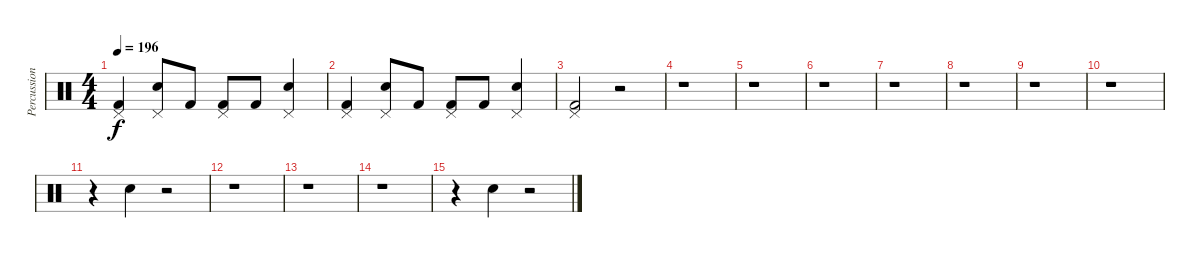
\track ("Percussion" "Percussion") {instrument percussion}
\staff {score}
\articulation defaults
\ts (4 4)
\tempo 196
\clef neutral
\ks c
("Pedal Hi-Hat (hit)" "Kick (hit) 2").4{dy f} ("Electric Snare (hit)" "Pedal Hi-Hat (hit)").8 "Kick (hit) 2".8 ("Pedal Hi-Hat (hit)" "Kick (hit) 2").8 "Kick (hit) 2".8 ("Electric Snare (hit)" "Pedal Hi-Hat (hit)").4 |
("Pedal Hi-Hat (hit)" "Kick (hit) 2").4 ("Electric Snare (hit)" "Pedal Hi-Hat (hit)").8 "Kick (hit) 2".8 ("Pedal Hi-Hat (hit)" "Kick (hit) 2").8 "Kick (hit) 2".8 ("Electric Snare (hit)" "Pedal Hi-Hat (hit)").4 |
("Pedal Hi-Hat (hit)" "Kick (hit) 2").2 r.2 |
r.1 |
r.1 |
r.1 |
r.1 |
r.1 |
r.1 |
r.1 |
r.4 "Hand Clap (hit)".4 r.2 |
r.1 |
r.1 |
r.1 |
r.4 "Hand Clap (hit)".4 r.2
